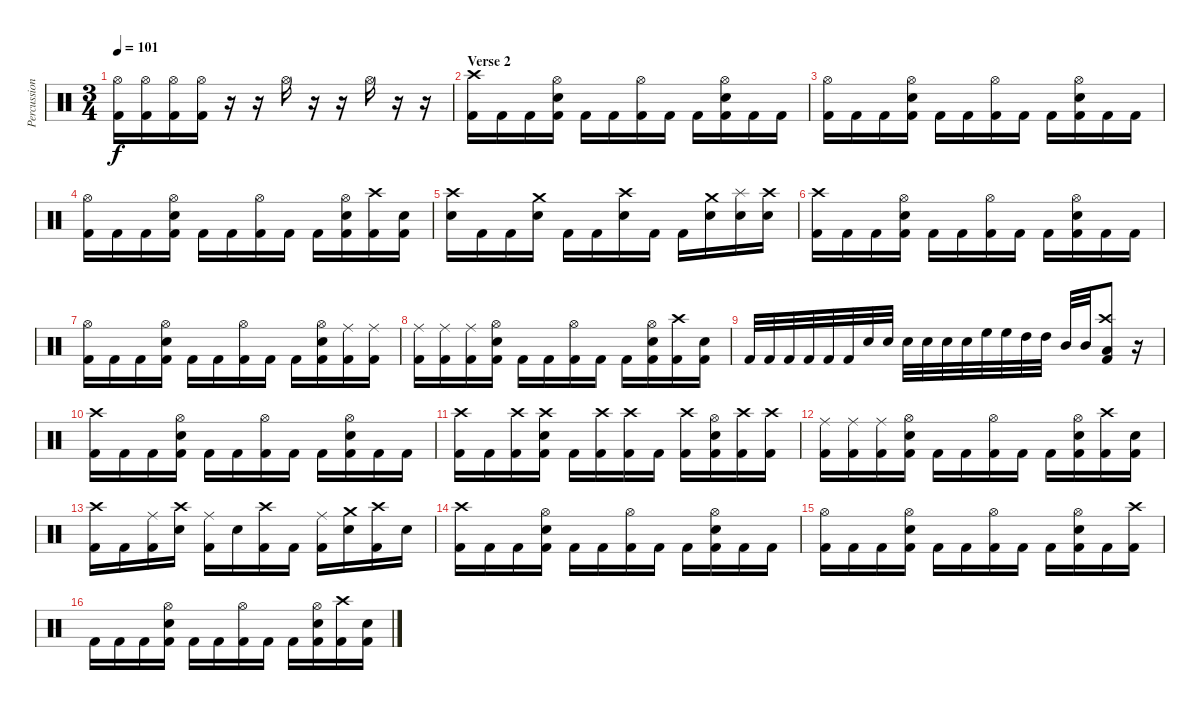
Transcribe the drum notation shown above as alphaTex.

\track ("Percussion" "Percussion") {instrument percussion}
\staff {score}
\articulation defaults
\ts (3 4)
\tempo 101
\clef neutral
\ks c
("Hi-Hat (open)" "Kick (hit) 2").16{dy f} ("Hi-Hat (open)" "Kick (hit) 2").16 ("Hi-Hat (open)" "Kick (hit) 2").16 ("Hi-Hat (open)" "Kick (hit) 2").16 r.16 r.16 "Hi-Hat (open)".16 r.16 r.16 "Hi-Hat (open)".16 r.16 r.16 |
\section ("" "Verse 2")
("Crash high (hit)" "Kick (hit) 2").16 "Kick (hit) 2".16 "Kick (hit) 2".16 ("Hi-Hat (open)" "Electric Snare (hit)" "Kick (hit) 2").16 "Kick (hit) 2".16 "Kick (hit) 2".16 ("Hi-Hat (open)" "Kick (hit) 2").16 "Kick (hit) 2".16 "Kick (hit) 2".16 ("Hi-Hat (open)" "Electric Snare (hit)" "Kick (hit) 2").16 "Kick (hit) 2".16 "Kick (hit) 2".16 |
("Hi-Hat (open)" "Kick (hit) 2").16 "Kick (hit) 2".16 "Kick (hit) 2".16 ("Hi-Hat (open)" "Electric Snare (hit)" "Kick (hit) 2").16 "Kick (hit) 2".16 "Kick (hit) 2".16 ("Hi-Hat (open)" "Kick (hit) 2").16 "Kick (hit) 2".16 "Kick (hit) 2".16 ("Hi-Hat (open)" "Electric Snare (hit)" "Kick (hit) 2").16 "Kick (hit) 2".16 "Kick (hit) 2".16 |
("Hi-Hat (open)" "Kick (hit) 2").16 "Kick (hit) 2".16 "Kick (hit) 2".16 ("Hi-Hat (open)" "Electric Snare (hit)" "Kick (hit) 2").16 "Kick (hit) 2".16 "Kick (hit) 2".16 ("Hi-Hat (open)" "Kick (hit) 2").16 "Kick (hit) 2".16 "Kick (hit) 2".16 ("Hi-Hat (open)" "Electric Snare (hit)" "Kick (hit) 2").16 ("Crash high (hit)" "Kick (hit) 2").16 ("Electric Snare (hit)" "Kick (hit) 2").16 |
("Crash high (hit)" "Electric Snare (hit)").16 "Kick (hit) 2".16 "Kick (hit) 2".16 ("Crash medium (hit)" "Electric Snare (hit)").16 "Kick (hit) 2".16 "Kick (hit) 2".16 ("Crash high (hit)" "Electric Snare (hit)").16 "Kick (hit) 2".16 "Kick (hit) 2".16 ("Crash medium (hit)" "Electric Snare (hit)").16 ("Splash (hit)" "Electric Snare (hit)").16 ("Crash high (hit)" "Electric Snare (hit)").16 |
("Crash high (hit)" "Kick (hit) 2").16 "Kick (hit) 2".16 "Kick (hit) 2".16 ("Hi-Hat (open)" "Electric Snare (hit)" "Kick (hit) 2").16 "Kick (hit) 2".16 "Kick (hit) 2".16 ("Hi-Hat (open)" "Kick (hit) 2").16 "Kick (hit) 2".16 "Kick (hit) 2".16 ("Hi-Hat (open)" "Electric Snare (hit)" "Kick (hit) 2").16 "Kick (hit) 2".16 "Kick (hit) 2".16 |
("Hi-Hat (open)" "Kick (hit) 2").16 "Kick (hit) 2".16 "Kick (hit) 2".16 ("Hi-Hat (open)" "Electric Snare (hit)" "Kick (hit) 2").16 "Kick (hit) 2".16 "Kick (hit) 2".16 ("Hi-Hat (open)" "Kick (hit) 2").16 "Kick (hit) 2".16 "Kick (hit) 2".16 ("Hi-Hat (open)" "Electric Snare (hit)" "Kick (hit) 2").16 ("Ride (middle)" "Kick (hit) 2").16 ("Ride (middle)" "Kick (hit) 2").16 |
("Ride (middle)" "Kick (hit) 2").16 ("Ride (middle)" "Kick (hit) 2").16 ("Ride (middle)" "Kick (hit) 2").16 ("Hi-Hat (open)" "Electric Snare (hit)" "Kick (hit) 2").16 "Kick (hit) 2".16 "Kick (hit) 2".16 ("Hi-Hat (open)" "Kick (hit) 2").16 "Kick (hit) 2".16 "Kick (hit) 2".16 ("Hi-Hat (open)" "Electric Snare (hit)" "Kick (hit) 2").16 ("Crash high (hit)" "Kick (hit) 2").16 ("Electric Snare (hit)" "Kick (hit) 2").16 |
"Kick (hit) 2".32 "Kick (hit) 2".32 "Kick (hit) 2".32 "Kick (hit) 2".32 "Kick (hit) 2".32 "Kick (hit) 2".32 "Electric Snare (hit)".32 "Electric Snare (hit)".32 "Electric Snare (hit)".32 "Electric Snare (hit)".32 "Electric Snare (hit)".32 "Electric Snare (hit)".32 "High Floor Tom (hit)".32 "High Floor Tom (hit)".32 "High Tom (hit)".32 "High Tom (hit)".32 "Mid Tom (hit)".32 "Mid Tom (hit)".32 ("Crash high (hit)" "Kick (hit) 2" "Low Tom (hit)").8 r.16 |
("Crash high (hit)" "Kick (hit) 2").16 "Kick (hit) 2".16 "Kick (hit) 2".16 ("Hi-Hat (open)" "Electric Snare (hit)" "Kick (hit) 2").16 "Kick (hit) 2".16 "Kick (hit) 2".16 ("Hi-Hat (open)" "Kick (hit) 2").16 "Kick (hit) 2".16 "Kick (hit) 2".16 ("Hi-Hat (open)" "Electric Snare (hit)" "Kick (hit) 2").16 "Kick (hit) 2".16 "Kick (hit) 2".16 |
("Crash high (hit)" "Kick (hit) 2").16 "Kick (hit) 2".16 ("Crash high (hit)" "Kick (hit) 2").16 ("Crash high (hit)" "Electric Snare (hit)" "Kick (hit) 2").16 "Kick (hit) 2".16 ("Crash high (hit)" "Kick (hit) 2").16 ("Crash high (hit)" "Kick (hit) 2").16 "Kick (hit) 2".16 ("Crash high (hit)" "Kick (hit) 2").16 ("Hi-Hat (open)" "Electric Snare (hit)" "Kick (hit) 2").16 ("Crash high (hit)" "Kick (hit) 2").16 ("Crash high (hit)" "Kick (hit) 2").16 |
("Ride (middle)" "Kick (hit) 2").16 ("Ride (middle)" "Kick (hit) 2").16 ("Ride (middle)" "Kick (hit) 2").16 ("Hi-Hat (open)" "Electric Snare (hit)" "Kick (hit) 2").16 "Kick (hit) 2".16 "Kick (hit) 2".16 ("Hi-Hat (open)" "Kick (hit) 2").16 "Kick (hit) 2".16 "Kick (hit) 2".16 ("Hi-Hat (open)" "Electric Snare (hit)" "Kick (hit) 2").16 ("Crash high (hit)" "Kick (hit) 2").16 ("Electric Snare (hit)" "Kick (hit) 2").16 |
("Crash high (hit)" "Kick (hit) 2").16 "Kick (hit) 2".16 ("Ride (middle)" "Kick (hit) 2").16 ("Crash high (hit)" "Electric Snare (hit)").16 ("Ride (middle)" "Kick (hit) 2").16 "Electric Snare (hit)".16 ("Crash high (hit)" "Kick (hit) 2").16 "Kick (hit) 2".16 ("Ride (middle)" "Kick (hit) 2").16 ("Crash medium (hit)" "Electric Snare (hit)").16 ("Crash high (hit)" "Kick (hit) 2").16 "Electric Snare (hit)".16 |
("Crash high (hit)" "Kick (hit) 2").16 "Kick (hit) 2".16 "Kick (hit) 2".16 ("Hi-Hat (open)" "Electric Snare (hit)" "Kick (hit) 2").16 "Kick (hit) 2".16 "Kick (hit) 2".16 ("Hi-Hat (open)" "Kick (hit) 2").16 "Kick (hit) 2".16 "Kick (hit) 2".16 ("Hi-Hat (open)" "Electric Snare (hit)" "Kick (hit) 2").16 "Kick (hit) 2".16 "Kick (hit) 2".16 |
("Hi-Hat (open)" "Kick (hit) 2").16 "Kick (hit) 2".16 "Kick (hit) 2".16 ("Hi-Hat (open)" "Electric Snare (hit)" "Kick (hit) 2").16 "Kick (hit) 2".16 "Kick (hit) 2".16 ("Hi-Hat (open)" "Kick (hit) 2").16 "Kick (hit) 2".16 "Kick (hit) 2".16 ("Hi-Hat (open)" "Electric Snare (hit)" "Kick (hit) 2").16 "Kick (hit) 2".16 ("Crash high (hit)" "Kick (hit) 2").16 |
"Kick (hit) 2".16 "Kick (hit) 2".16 "Kick (hit) 2".16 ("Hi-Hat (open)" "Electric Snare (hit)" "Kick (hit) 2").16 "Kick (hit) 2".16 "Kick (hit) 2".16 ("Hi-Hat (open)" "Kick (hit) 2").16 "Kick (hit) 2".16 "Kick (hit) 2".16 ("Hi-Hat (open)" "Electric Snare (hit)" "Kick (hit) 2").16 ("Crash high (hit)" "Kick (hit) 2").16 ("Electric Snare (hit)" "Kick (hit) 2").16
